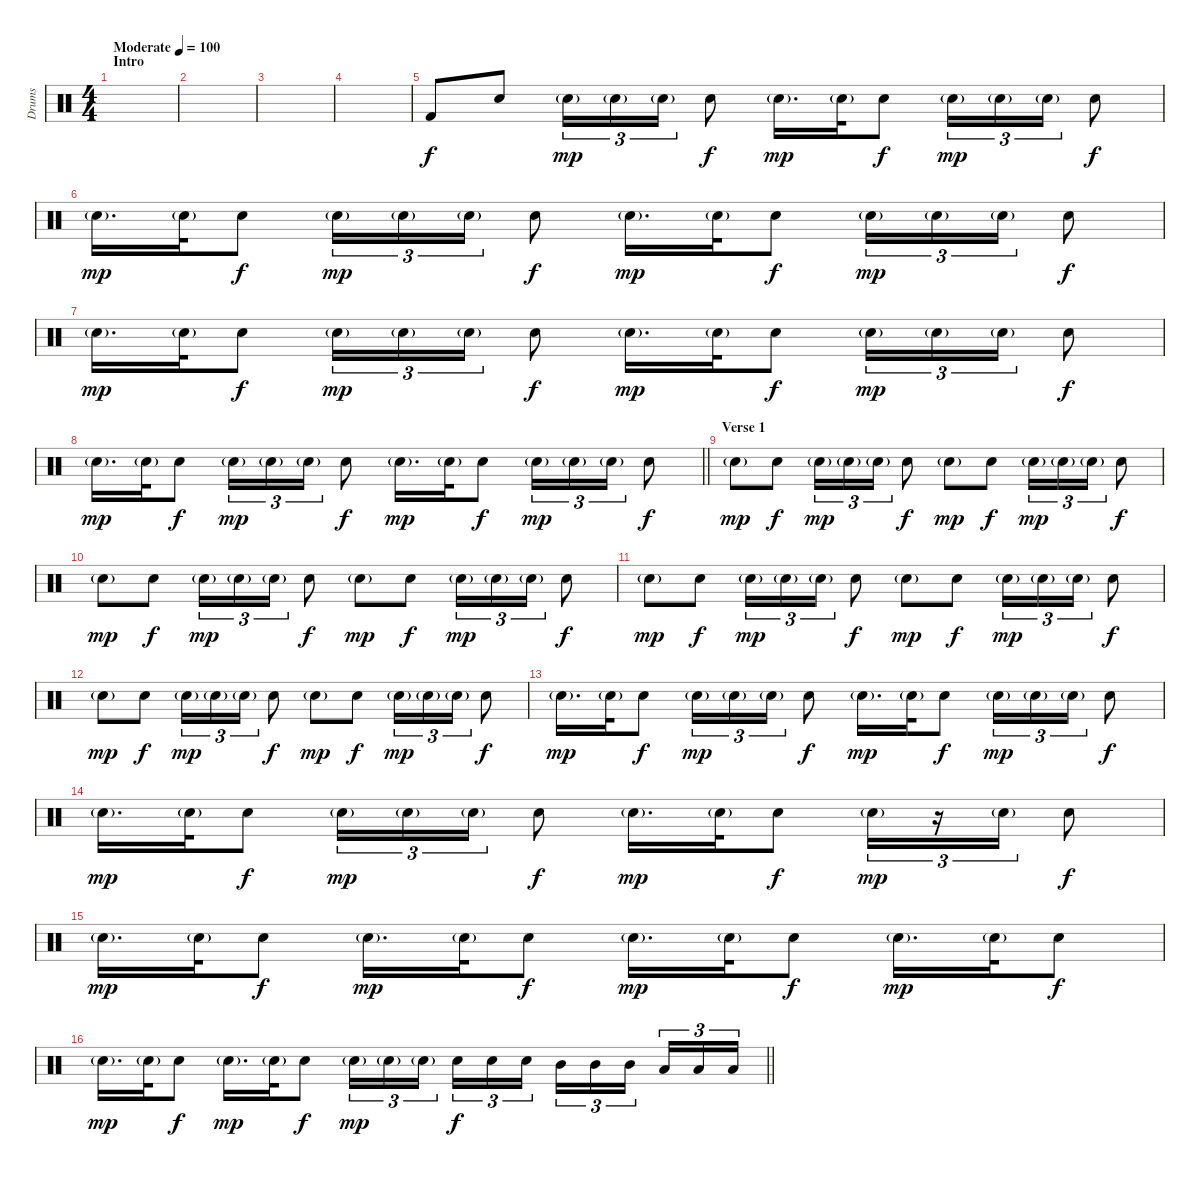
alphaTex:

\track ("Drums" "Drums") {instrument percussion}
\staff {score}
\articulation defaults
\ts (4 4)
\section ("" "Intro")
\tempo (100 "Moderate")
\clef neutral
\ks c
|
|
|
|
"Kick (hit) 2".8 "Snare (hit) 2".8 "Snare (hit) 2"{g}.16{tu (3 2) dy mp} "Snare (hit) 2"{g}.16{tu (3 2)} "Snare (hit) 2"{g}.16{tu (3 2)} "Snare (hit) 2".8{dy f} "Snare (hit) 2"{g}.16{d dy mp} "Snare (hit) 2"{g}.32 "Snare (hit) 2".8{dy f} "Snare (hit) 2"{g}.16{tu (3 2) dy mp} "Snare (hit) 2"{g}.16{tu (3 2)} "Snare (hit) 2"{g}.16{tu (3 2)} "Snare (hit) 2".8{dy f} |
"Snare (hit) 2"{g}.16{d dy mp} "Snare (hit) 2"{g}.32 "Snare (hit) 2".8{dy f} "Snare (hit) 2"{g}.16{tu (3 2) dy mp} "Snare (hit) 2"{g}.16{tu (3 2)} "Snare (hit) 2"{g}.16{tu (3 2)} "Snare (hit) 2".8{dy f} "Snare (hit) 2"{g}.16{d dy mp} "Snare (hit) 2"{g}.32 "Snare (hit) 2".8{dy f} "Snare (hit) 2"{g}.16{tu (3 2) dy mp} "Snare (hit) 2"{g}.16{tu (3 2)} "Snare (hit) 2"{g}.16{tu (3 2)} "Snare (hit) 2".8{dy f} |
"Snare (hit) 2"{g}.16{d dy mp} "Snare (hit) 2"{g}.32 "Snare (hit) 2".8{dy f} "Snare (hit) 2"{g}.16{tu (3 2) dy mp} "Snare (hit) 2"{g}.16{tu (3 2)} "Snare (hit) 2"{g}.16{tu (3 2)} "Snare (hit) 2".8{dy f} "Snare (hit) 2"{g}.16{d dy mp} "Snare (hit) 2"{g}.32 "Snare (hit) 2".8{dy f} "Snare (hit) 2"{g}.16{tu (3 2) dy mp} "Snare (hit) 2"{g}.16{tu (3 2)} "Snare (hit) 2"{g}.16{tu (3 2)} "Snare (hit) 2".8{dy f} |
\barLineRight lightlight "Snare (hit) 2"{g}.16{d dy mp} "Snare (hit) 2"{g}.32 "Snare (hit) 2".8{dy f} "Snare (hit) 2"{g}.16{tu (3 2) dy mp} "Snare (hit) 2"{g}.16{tu (3 2)} "Snare (hit) 2"{g}.16{tu (3 2)} "Snare (hit) 2".8{dy f} "Snare (hit) 2"{g}.16{d dy mp} "Snare (hit) 2"{g}.32 "Snare (hit) 2".8{dy f} "Snare (hit) 2"{g}.16{tu (3 2) dy mp} "Snare (hit) 2"{g}.16{tu (3 2)} "Snare (hit) 2"{g}.16{tu (3 2)} "Snare (hit) 2".8{dy f}
|
\section ("" "Verse 1")
"Snare (hit) 2"{g}.8{dy mp} "Snare (hit) 2".8{dy f} "Snare (hit) 2"{g}.16{tu (3 2) dy mp} "Snare (hit) 2"{g}.16{tu (3 2)} "Snare (hit) 2"{g}.16{tu (3 2)} "Snare (hit) 2".8{dy f} "Snare (hit) 2"{g}.8{dy mp} "Snare (hit) 2".8{dy f} "Snare (hit) 2"{g}.16{tu (3 2) dy mp} "Snare (hit) 2"{g}.16{tu (3 2)} "Snare (hit) 2"{g}.16{tu (3 2)} "Snare (hit) 2".8{dy f} |
"Snare (hit) 2"{g}.8{dy mp} "Snare (hit) 2".8{dy f} "Snare (hit) 2"{g}.16{tu (3 2) dy mp} "Snare (hit) 2"{g}.16{tu (3 2)} "Snare (hit) 2"{g}.16{tu (3 2)} "Snare (hit) 2".8{dy f} "Snare (hit) 2"{g}.8{dy mp} "Snare (hit) 2".8{dy f} "Snare (hit) 2"{g}.16{tu (3 2) dy mp} "Snare (hit) 2"{g}.16{tu (3 2)} "Snare (hit) 2"{g}.16{tu (3 2)} "Snare (hit) 2".8{dy f} |
"Snare (hit) 2"{g}.8{dy mp} "Snare (hit) 2".8{dy f} "Snare (hit) 2"{g}.16{tu (3 2) dy mp} "Snare (hit) 2"{g}.16{tu (3 2)} "Snare (hit) 2"{g}.16{tu (3 2)} "Snare (hit) 2".8{dy f} "Snare (hit) 2"{g}.8{dy mp} "Snare (hit) 2".8{dy f} "Snare (hit) 2"{g}.16{tu (3 2) dy mp} "Snare (hit) 2"{g}.16{tu (3 2)} "Snare (hit) 2"{g}.16{tu (3 2)} "Snare (hit) 2".8{dy f} |
"Snare (hit) 2"{g}.8{dy mp} "Snare (hit) 2".8{dy f} "Snare (hit) 2"{g}.16{tu (3 2) dy mp} "Snare (hit) 2"{g}.16{tu (3 2)} "Snare (hit) 2"{g}.16{tu (3 2)} "Snare (hit) 2".8{dy f} "Snare (hit) 2"{g}.8{dy mp} "Snare (hit) 2".8{dy f} "Snare (hit) 2"{g}.16{tu (3 2) dy mp} "Snare (hit) 2"{g}.16{tu (3 2)} "Snare (hit) 2"{g}.16{tu (3 2)} "Snare (hit) 2".8{dy f} |
"Snare (hit) 2"{g}.16{d dy mp} "Snare (hit) 2"{g}.32 "Snare (hit) 2".8{dy f} "Snare (hit) 2"{g}.16{tu (3 2) dy mp} "Snare (hit) 2"{g}.16{tu (3 2)} "Snare (hit) 2"{g}.16{tu (3 2)} "Snare (hit) 2".8{dy f} "Snare (hit) 2"{g}.16{d dy mp} "Snare (hit) 2"{g}.32 "Snare (hit) 2".8{dy f} "Snare (hit) 2"{g}.16{tu (3 2) dy mp} "Snare (hit) 2"{g}.16{tu (3 2)} "Snare (hit) 2"{g}.16{tu (3 2)} "Snare (hit) 2".8{dy f} |
"Snare (hit) 2"{g}.16{d dy mp} "Snare (hit) 2"{g}.32 "Snare (hit) 2".8{dy f} "Snare (hit) 2"{g}.16{tu (3 2) dy mp} "Snare (hit) 2"{g}.16{tu (3 2)} "Snare (hit) 2"{g}.16{tu (3 2)} "Snare (hit) 2".8{dy f} "Snare (hit) 2"{g}.16{d dy mp} "Snare (hit) 2"{g}.32 "Snare (hit) 2".8{dy f} "Snare (hit) 2"{g}.16{tu (3 2) dy mp} r.16{tu (3 2)} "Snare (hit) 2"{g}.16{tu (3 2)} "Snare (hit) 2".8{dy f} |
"Snare (hit) 2"{g}.16{d dy mp} "Snare (hit) 2"{g}.32 "Snare (hit) 2".8{dy f} "Snare (hit) 2"{g}.16{d dy mp} "Snare (hit) 2"{g}.32 "Snare (hit) 2".8{dy f} "Snare (hit) 2"{g}.16{d dy mp} "Snare (hit) 2"{g}.32 "Snare (hit) 2".8{dy f} "Snare (hit) 2"{g}.16{d dy mp} "Snare (hit) 2"{g}.32 "Snare (hit) 2".8{dy f} |
\barLineRight lightlight "Snare (hit) 2"{g}.16{d dy mp} "Snare (hit) 2"{g}.32 "Snare (hit) 2".8{dy f} "Snare (hit) 2"{g}.16{d dy mp} "Snare (hit) 2"{g}.32 "Snare (hit) 2".8{dy f} "Snare (hit) 2"{g}.16{tu (3 2) dy mp} "Snare (hit) 2"{g}.16{tu (3 2)} "Snare (hit) 2"{g}.16{tu (3 2) beam splitsecondary} "Snare (hit) 2".16{tu (3 2) dy f} "Snare (hit) 2".16{tu (3 2)} "Snare (hit) 2".16{tu (3 2)} "Mid Tom (hit)".16{tu (3 2)} "Mid Tom (hit)".16{tu (3 2)} "Mid Tom (hit)".16{tu (3 2) beam splitsecondary} "Low Tom (hit)".16{tu (3 2)} "Low Tom (hit)".16{tu (3 2)} "Low Tom (hit)".16{tu (3 2)}
